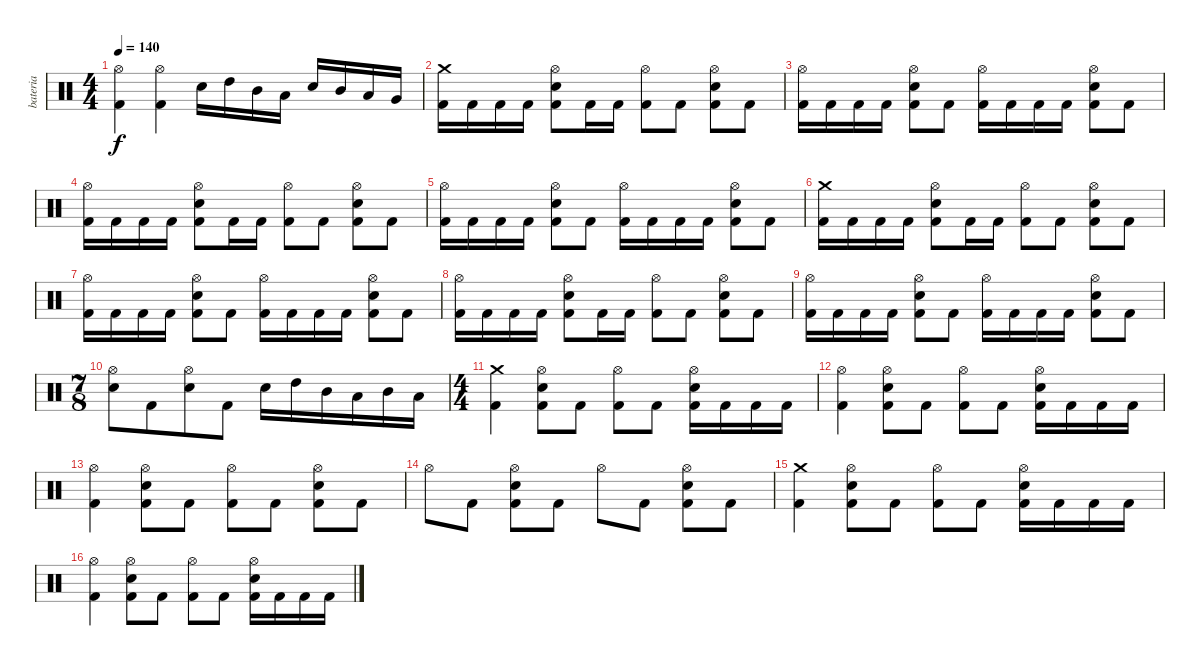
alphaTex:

\track ("bateria" "bateria") {instrument percussion}
\staff {score}
\articulation defaults
\ts (4 4)
\tempo 140
\clef neutral
\ks c
("Hi-Hat (open)" "Kick (hit) 2").4{dy f} ("Hi-Hat (open)" "Kick (hit) 2").4 "Electric Snare (hit)".16 "High Tom (hit)".16 "Mid Tom (hit)".16 "Low Tom (hit)".16 "Electric Snare (hit)".16 "Mid Tom (hit)".16 "Low Tom (hit)".16 "Very Low Tom (hit)".16 |
("Crash medium (hit)" "Kick (hit) 2").16 "Kick (hit) 2".16 "Kick (hit) 2".16 "Kick (hit) 2".16 ("Hi-Hat (open)" "Electric Snare (hit)" "Kick (hit) 2").8 "Kick (hit) 2".16 "Kick (hit) 2".16 ("Hi-Hat (open)" "Kick (hit) 2").8 "Kick (hit) 2".8 ("Hi-Hat (open)" "Electric Snare (hit)" "Kick (hit) 2").8 "Kick (hit) 2".8 |
("Hi-Hat (open)" "Kick (hit) 2").16 "Kick (hit) 2".16 "Kick (hit) 2".16 "Kick (hit) 2".16 ("Hi-Hat (open)" "Electric Snare (hit)" "Kick (hit) 2").8 "Kick (hit) 2".8 ("Hi-Hat (open)" "Kick (hit) 2").16 "Kick (hit) 2".16 "Kick (hit) 2".16 "Kick (hit) 2".16 ("Hi-Hat (open)" "Electric Snare (hit)" "Kick (hit) 2").8 "Kick (hit) 2".8 |
("Hi-Hat (open)" "Kick (hit) 2").16 "Kick (hit) 2".16 "Kick (hit) 2".16 "Kick (hit) 2".16 ("Hi-Hat (open)" "Electric Snare (hit)" "Kick (hit) 2").8 "Kick (hit) 2".16 "Kick (hit) 2".16 ("Hi-Hat (open)" "Kick (hit) 2").8 "Kick (hit) 2".8 ("Hi-Hat (open)" "Electric Snare (hit)" "Kick (hit) 2").8 "Kick (hit) 2".8 |
("Hi-Hat (open)" "Kick (hit) 2").16 "Kick (hit) 2".16 "Kick (hit) 2".16 "Kick (hit) 2".16 ("Hi-Hat (open)" "Electric Snare (hit)" "Kick (hit) 2").8 "Kick (hit) 2".8 ("Hi-Hat (open)" "Kick (hit) 2").16 "Kick (hit) 2".16 "Kick (hit) 2".16 "Kick (hit) 2".16 ("Hi-Hat (open)" "Electric Snare (hit)" "Kick (hit) 2").8 "Kick (hit) 2".8 |
("Crash medium (hit)" "Kick (hit) 2").16 "Kick (hit) 2".16 "Kick (hit) 2".16 "Kick (hit) 2".16 ("Hi-Hat (open)" "Electric Snare (hit)" "Kick (hit) 2").8 "Kick (hit) 2".16 "Kick (hit) 2".16 ("Hi-Hat (open)" "Kick (hit) 2").8 "Kick (hit) 2".8 ("Hi-Hat (open)" "Electric Snare (hit)" "Kick (hit) 2").8 "Kick (hit) 2".8 |
("Hi-Hat (open)" "Kick (hit) 2").16 "Kick (hit) 2".16 "Kick (hit) 2".16 "Kick (hit) 2".16 ("Hi-Hat (open)" "Electric Snare (hit)" "Kick (hit) 2").8 "Kick (hit) 2".8 ("Hi-Hat (open)" "Kick (hit) 2").16 "Kick (hit) 2".16 "Kick (hit) 2".16 "Kick (hit) 2".16 ("Hi-Hat (open)" "Electric Snare (hit)" "Kick (hit) 2").8 "Kick (hit) 2".8 |
("Hi-Hat (open)" "Kick (hit) 2").16 "Kick (hit) 2".16 "Kick (hit) 2".16 "Kick (hit) 2".16 ("Hi-Hat (open)" "Electric Snare (hit)" "Kick (hit) 2").8 "Kick (hit) 2".16 "Kick (hit) 2".16 ("Hi-Hat (open)" "Kick (hit) 2").8 "Kick (hit) 2".8 ("Hi-Hat (open)" "Electric Snare (hit)" "Kick (hit) 2").8 "Kick (hit) 2".8 |
("Hi-Hat (open)" "Kick (hit) 2").16 "Kick (hit) 2".16 "Kick (hit) 2".16 "Kick (hit) 2".16 ("Hi-Hat (open)" "Electric Snare (hit)" "Kick (hit) 2").8 "Kick (hit) 2".8 ("Hi-Hat (open)" "Kick (hit) 2").16 "Kick (hit) 2".16 "Kick (hit) 2".16 "Kick (hit) 2".16 ("Hi-Hat (open)" "Electric Snare (hit)" "Kick (hit) 2").8 "Kick (hit) 2".8 |
\ts (7 8)
("Hi-Hat (open)" "Electric Snare (hit)").8 "Kick (hit) 2".8 ("Hi-Hat (open)" "Electric Snare (hit)").8 "Kick (hit) 2".8 "Electric Snare (hit)".16 "High Tom (hit)".16 "Mid Tom (hit)".16 "Low Tom (hit)".16 "Mid Tom (hit)".16 "Low Tom (hit)".16 |
\ts (4 4)
("Crash medium (hit)" "Kick (hit) 2").4 ("Hi-Hat (open)" "Electric Snare (hit)" "Kick (hit) 2").8 "Kick (hit) 2".8 ("Hi-Hat (open)" "Kick (hit) 2").8 "Kick (hit) 2".8 ("Hi-Hat (open)" "Electric Snare (hit)" "Kick (hit) 2").16 "Kick (hit) 2".16 "Kick (hit) 2".16 "Kick (hit) 2".16 |
("Hi-Hat (open)" "Kick (hit) 2").4 ("Hi-Hat (open)" "Electric Snare (hit)" "Kick (hit) 2").8 "Kick (hit) 2".8 ("Hi-Hat (open)" "Kick (hit) 2").8 "Kick (hit) 2".8 ("Hi-Hat (open)" "Electric Snare (hit)" "Kick (hit) 2").16 "Kick (hit) 2".16 "Kick (hit) 2".16 "Kick (hit) 2".16 |
("Hi-Hat (open)" "Kick (hit) 2").4 ("Hi-Hat (open)" "Electric Snare (hit)" "Kick (hit) 2").8 "Kick (hit) 2".8 ("Hi-Hat (open)" "Kick (hit) 2").8 "Kick (hit) 2".8 ("Hi-Hat (open)" "Electric Snare (hit)" "Kick (hit) 2").8 "Kick (hit) 2".8 |
"Hi-Hat (open)".8 "Kick (hit) 2".8 ("Hi-Hat (open)" "Electric Snare (hit)" "Kick (hit) 2").8 "Kick (hit) 2".8 "Hi-Hat (open)".8 "Kick (hit) 2".8 ("Hi-Hat (open)" "Electric Snare (hit)" "Kick (hit) 2").8 "Kick (hit) 2".8 |
("Crash medium (hit)" "Kick (hit) 2").4 ("Hi-Hat (open)" "Electric Snare (hit)" "Kick (hit) 2").8 "Kick (hit) 2".8 ("Hi-Hat (open)" "Kick (hit) 2").8 "Kick (hit) 2".8 ("Hi-Hat (open)" "Electric Snare (hit)" "Kick (hit) 2").16 "Kick (hit) 2".16 "Kick (hit) 2".16 "Kick (hit) 2".16 |
("Hi-Hat (open)" "Kick (hit) 2").4 ("Hi-Hat (open)" "Electric Snare (hit)" "Kick (hit) 2").8 "Kick (hit) 2".8 ("Hi-Hat (open)" "Kick (hit) 2").8 "Kick (hit) 2".8 ("Hi-Hat (open)" "Electric Snare (hit)" "Kick (hit) 2").16 "Kick (hit) 2".16 "Kick (hit) 2".16 "Kick (hit) 2".16
